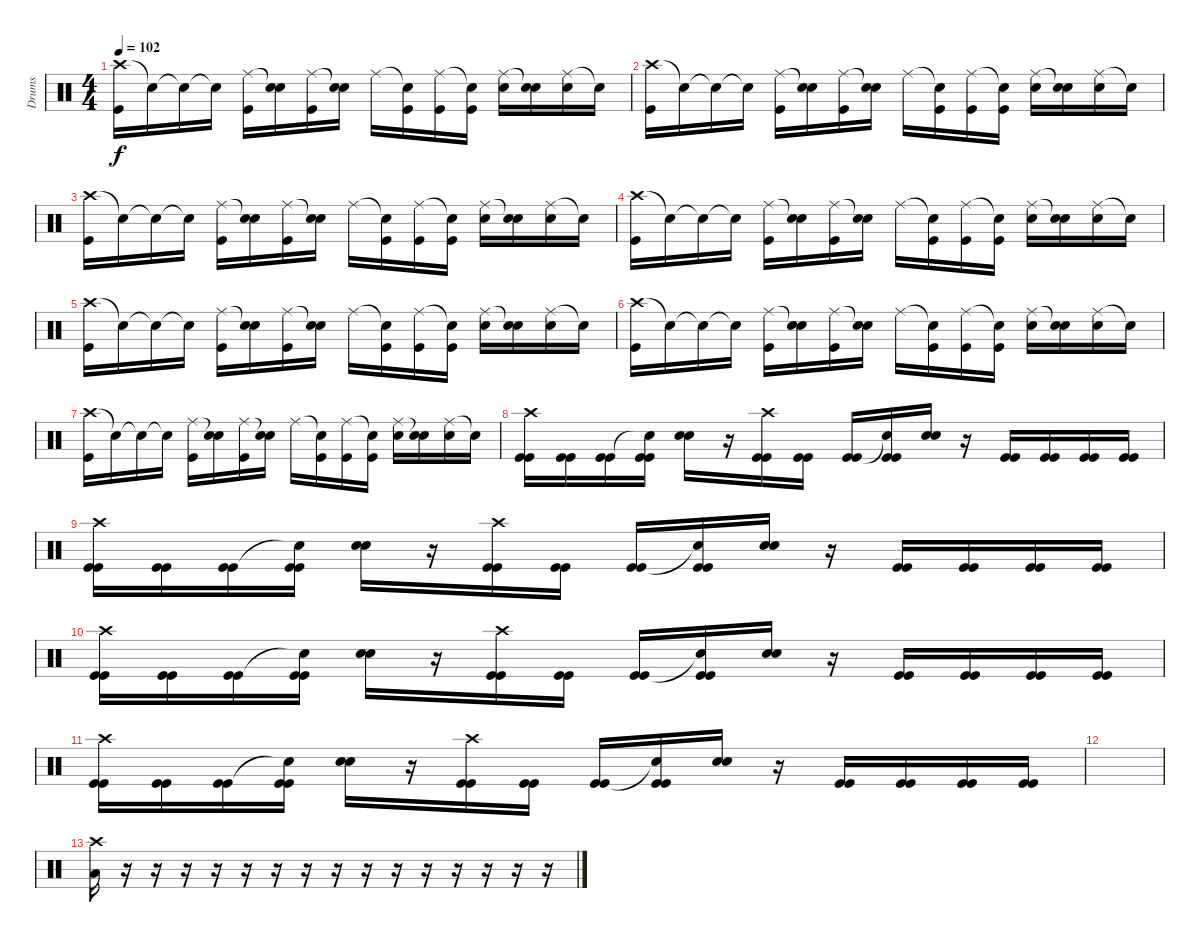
\track ("Drums" "Drums") {instrument percussion}
\staff {score}
\articulation defaults
\ts (4 4)
\tempo 102
\clef neutral
\ks c
("Crash high (hit)" "Kick (hit)").16{dy f} "Snare (hit)"{t}.16 "Snare (hit)"{t}.16 "Snare (hit)"{t}.16 ("Ride (middle)" "Kick (hit)").16 ("Snare (hit)"{t} "Snare (hit) 2").16 ("Ride (middle)" "Kick (hit)").16 ("Snare (hit)"{t} "Snare (hit) 2").16 "Ride (middle)".16 ("Snare (hit)"{t} "Kick (hit)").16 ("Ride (middle)" "Kick (hit)").16 ("Snare (hit)"{t} "Kick (hit)").16 ("Ride (middle)" "Snare (hit) 2").16 ("Snare (hit)"{t} "Snare (hit) 2").16 ("Ride (middle)" "Snare (hit) 2").16 "Snare (hit)"{t}.16 |
("Crash high (hit)" "Kick (hit)").16 "Snare (hit)"{t}.16 "Snare (hit)"{t}.16 "Snare (hit)"{t}.16 ("Ride (middle)" "Kick (hit)").16 ("Snare (hit)"{t} "Snare (hit) 2").16 ("Ride (middle)" "Kick (hit)").16 ("Snare (hit)"{t} "Snare (hit) 2").16 "Ride (middle)".16 ("Snare (hit)"{t} "Kick (hit)").16 ("Ride (middle)" "Kick (hit)").16 ("Snare (hit)"{t} "Kick (hit)").16 ("Ride (middle)" "Snare (hit) 2").16 ("Snare (hit)"{t} "Snare (hit) 2").16 ("Ride (middle)" "Snare (hit) 2").16 "Snare (hit)"{t}.16 |
("Crash high (hit)" "Kick (hit)").16 "Snare (hit)"{t}.16 "Snare (hit)"{t}.16 "Snare (hit)"{t}.16 ("Ride (middle)" "Kick (hit)").16 ("Snare (hit)"{t} "Snare (hit) 2").16 ("Ride (middle)" "Kick (hit)").16 ("Snare (hit)"{t} "Snare (hit) 2").16 "Ride (middle)".16 ("Snare (hit)"{t} "Kick (hit)").16 ("Ride (middle)" "Kick (hit)").16 ("Snare (hit)"{t} "Kick (hit)").16 ("Ride (middle)" "Snare (hit) 2").16 ("Snare (hit)"{t} "Snare (hit) 2").16 ("Ride (middle)" "Snare (hit) 2").16 "Snare (hit)"{t}.16 |
("Crash high (hit)" "Kick (hit)").16 "Snare (hit)"{t}.16 "Snare (hit)"{t}.16 "Snare (hit)"{t}.16 ("Ride (middle)" "Kick (hit)").16 ("Snare (hit)"{t} "Snare (hit) 2").16 ("Ride (middle)" "Kick (hit)").16 ("Snare (hit)"{t} "Snare (hit) 2").16 "Ride (middle)".16 ("Snare (hit)"{t} "Kick (hit)").16 ("Ride (middle)" "Kick (hit)").16 ("Snare (hit)"{t} "Kick (hit)").16 ("Ride (middle)" "Snare (hit) 2").16 ("Snare (hit)"{t} "Snare (hit) 2").16 ("Ride (middle)" "Snare (hit) 2").16 "Snare (hit)"{t}.16 |
("Crash high (hit)" "Kick (hit)").16 "Snare (hit)"{t}.16 "Snare (hit)"{t}.16 "Snare (hit)"{t}.16 ("Ride (middle)" "Kick (hit)").16 ("Snare (hit)"{t} "Snare (hit) 2").16 ("Ride (middle)" "Kick (hit)").16 ("Snare (hit)"{t} "Snare (hit) 2").16 "Ride (middle)".16 ("Snare (hit)"{t} "Kick (hit)").16 ("Ride (middle)" "Kick (hit)").16 ("Snare (hit)"{t} "Kick (hit)").16 ("Ride (middle)" "Snare (hit) 2").16 ("Snare (hit)"{t} "Snare (hit) 2").16 ("Ride (middle)" "Snare (hit) 2").16 "Snare (hit)"{t}.16 |
("Crash high (hit)" "Kick (hit)").16 "Snare (hit)"{t}.16 "Snare (hit)"{t}.16 "Snare (hit)"{t}.16 ("Ride (middle)" "Kick (hit)").16 ("Snare (hit)"{t} "Snare (hit) 2").16 ("Ride (middle)" "Kick (hit)").16 ("Snare (hit)"{t} "Snare (hit) 2").16 "Ride (middle)".16 ("Snare (hit)"{t} "Kick (hit)").16 ("Ride (middle)" "Kick (hit)").16 ("Snare (hit)"{t} "Kick (hit)").16 ("Ride (middle)" "Snare (hit) 2").16 ("Snare (hit)"{t} "Snare (hit) 2").16 ("Ride (middle)" "Snare (hit) 2").16 "Snare (hit)"{t}.16 |
("Crash high (hit)" "Kick (hit)").16 "Snare (hit)"{t}.16 "Snare (hit)"{t}.16 "Snare (hit)"{t}.16 ("Ride (middle)" "Kick (hit)").16 ("Snare (hit)"{t} "Snare (hit) 2").16 ("Ride (middle)" "Kick (hit)").16 ("Snare (hit)"{t} "Snare (hit) 2").16 "Ride (middle)".16 ("Snare (hit)"{t} "Kick (hit)").16 ("Ride (middle)" "Kick (hit)").16 ("Snare (hit)"{t} "Kick (hit)").16 ("Ride (middle)" "Snare (hit) 2").16 ("Snare (hit)"{t} "Snare (hit) 2").16 ("Ride (middle)" "Snare (hit) 2").16 "Snare (hit)"{t}.16 |
("Crash high (hit)" "Kick (hit)" "Kick (hit)").16 ("Kick (hit)" "Kick (hit)").16 ("Kick (hit)" "Kick (hit)").16 ("Snare (hit)"{t} "Kick (hit)" "Kick (hit)").16 ("Snare (hit) 2" "Snare (hit) 2").16 r.16 ("Crash high (hit)" "Kick (hit)" "Kick (hit)").16 ("Kick (hit)" "Kick (hit)").16 ("Kick (hit)" "Kick (hit)").16 ("Snare (hit)"{t} "Kick (hit)" "Kick (hit)").16 ("Snare (hit) 2" "Snare (hit) 2").16 r.16 ("Kick (hit)" "Kick (hit)").16 ("Kick (hit)" "Kick (hit)").16 ("Kick (hit)" "Kick (hit)").16 ("Kick (hit)" "Kick (hit)").16 |
("Crash high (hit)" "Kick (hit)" "Kick (hit)").16 ("Kick (hit)" "Kick (hit)").16 ("Kick (hit)" "Kick (hit)").16 ("Snare (hit)"{t} "Kick (hit)" "Kick (hit)").16 ("Snare (hit) 2" "Snare (hit) 2").16 r.16 ("Crash high (hit)" "Kick (hit)" "Kick (hit)").16 ("Kick (hit)" "Kick (hit)").16 ("Kick (hit)" "Kick (hit)").16 ("Snare (hit)"{t} "Kick (hit)" "Kick (hit)").16 ("Snare (hit) 2" "Snare (hit) 2").16 r.16 ("Kick (hit)" "Kick (hit)").16 ("Kick (hit)" "Kick (hit)").16 ("Kick (hit)" "Kick (hit)").16 ("Kick (hit)" "Kick (hit)").16 |
("Crash high (hit)" "Kick (hit)" "Kick (hit)").16 ("Kick (hit)" "Kick (hit)").16 ("Kick (hit)" "Kick (hit)").16 ("Snare (hit)"{t} "Kick (hit)" "Kick (hit)").16 ("Snare (hit) 2" "Snare (hit) 2").16 r.16 ("Crash high (hit)" "Kick (hit)" "Kick (hit)").16 ("Kick (hit)" "Kick (hit)").16 ("Kick (hit)" "Kick (hit)").16 ("Snare (hit)"{t} "Kick (hit)" "Kick (hit)").16 ("Snare (hit) 2" "Snare (hit) 2").16 r.16 ("Kick (hit)" "Kick (hit)").16 ("Kick (hit)" "Kick (hit)").16 ("Kick (hit)" "Kick (hit)").16 ("Kick (hit)" "Kick (hit)").16 |
("Crash high (hit)" "Kick (hit)" "Kick (hit)").16 ("Kick (hit)" "Kick (hit)").16 ("Kick (hit)" "Kick (hit)").16 ("Snare (hit)"{t} "Kick (hit)" "Kick (hit)").16 ("Snare (hit) 2" "Snare (hit) 2").16 r.16 ("Crash high (hit)" "Kick (hit)" "Kick (hit)").16 ("Kick (hit)" "Kick (hit)").16 ("Kick (hit)" "Kick (hit)").16 ("Snare (hit)"{t} "Kick (hit)" "Kick (hit)").16 ("Snare (hit) 2" "Snare (hit) 2").16 r.16 ("Kick (hit)" "Kick (hit)").16 ("Kick (hit)" "Kick (hit)").16 ("Kick (hit)" "Kick (hit)").16 ("Kick (hit)" "Kick (hit)").16 |
|
("Crash high (hit)" "Low Floor Tom (hit)").16 r.16 r.16 r.16 r.16 r.16 r.16 r.16 r.16 r.16 r.16 r.16 r.16 r.16 r.16 r.16
